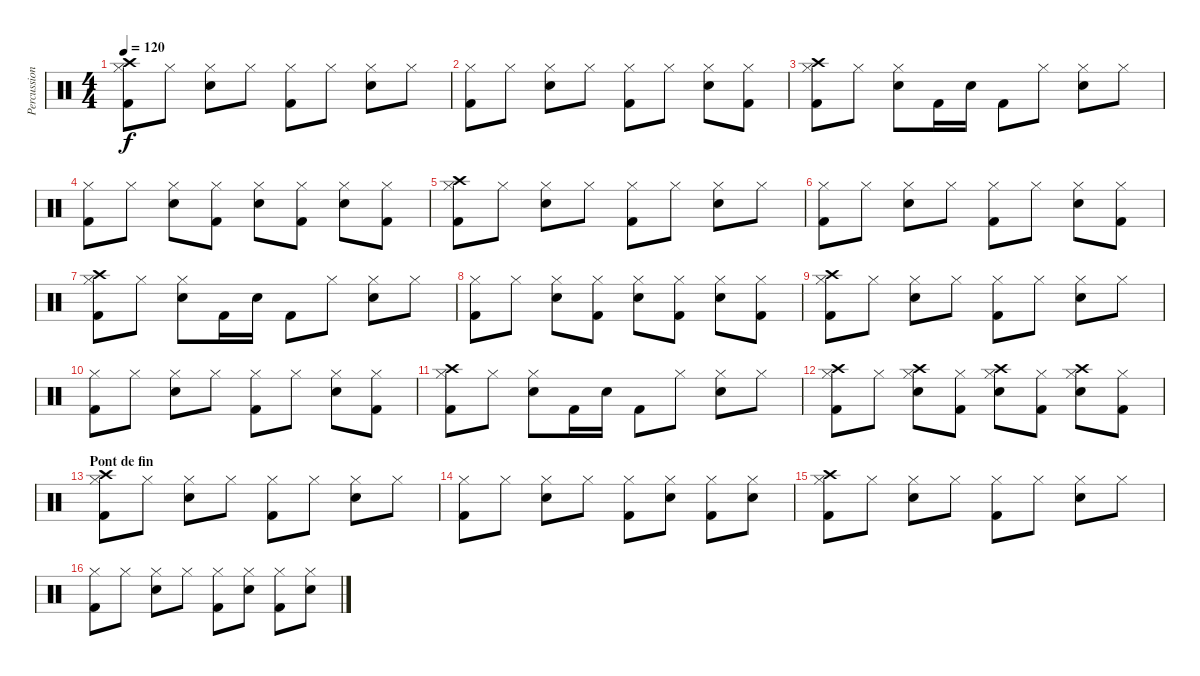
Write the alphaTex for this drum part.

\track ("Percussions" "Percussion") {instrument percussion}
\staff {score}
\articulation defaults
\ts (4 4)
\tempo 120
\clef neutral
\ks c
("Crash high (hit)" "Hi-Hat (closed)" "Kick (hit) 2").8{dy f} "Hi-Hat (closed)".8 ("Hi-Hat (closed)" "Electric Snare (hit)").8 "Hi-Hat (closed)".8 ("Hi-Hat (closed)" "Kick (hit) 2").8 "Hi-Hat (closed)".8 ("Hi-Hat (closed)" "Electric Snare (hit)").8 "Hi-Hat (closed)".8 |
("Hi-Hat (closed)" "Kick (hit) 2").8 "Hi-Hat (closed)".8 ("Hi-Hat (closed)" "Electric Snare (hit)").8 "Hi-Hat (closed)".8 ("Hi-Hat (closed)" "Kick (hit) 2").8 "Hi-Hat (closed)".8 ("Hi-Hat (closed)" "Electric Snare (hit)").8 ("Hi-Hat (closed)" "Kick (hit) 2").8 |
("Crash high (hit)" "Hi-Hat (closed)" "Kick (hit) 2").8 "Hi-Hat (closed)".8 ("Hi-Hat (closed)" "Electric Snare (hit)").8 "Kick (hit) 2".16 "Electric Snare (hit)".16 "Kick (hit) 2".8 "Hi-Hat (closed)".8 ("Hi-Hat (closed)" "Electric Snare (hit)").8 "Hi-Hat (closed)".8 |
("Hi-Hat (closed)" "Kick (hit) 2").8 "Hi-Hat (closed)".8 ("Hi-Hat (closed)" "Electric Snare (hit)").8 ("Hi-Hat (closed)" "Kick (hit) 2").8 ("Hi-Hat (closed)" "Electric Snare (hit)").8 ("Hi-Hat (closed)" "Kick (hit) 2").8 ("Hi-Hat (closed)" "Electric Snare (hit)").8 ("Hi-Hat (closed)" "Kick (hit) 2").8 |
("Crash high (hit)" "Hi-Hat (closed)" "Kick (hit) 2").8 "Hi-Hat (closed)".8 ("Hi-Hat (closed)" "Electric Snare (hit)").8 "Hi-Hat (closed)".8 ("Hi-Hat (closed)" "Kick (hit) 2").8 "Hi-Hat (closed)".8 ("Hi-Hat (closed)" "Electric Snare (hit)").8 "Hi-Hat (closed)".8 |
("Hi-Hat (closed)" "Kick (hit) 2").8 "Hi-Hat (closed)".8 ("Hi-Hat (closed)" "Electric Snare (hit)").8 "Hi-Hat (closed)".8 ("Hi-Hat (closed)" "Kick (hit) 2").8 "Hi-Hat (closed)".8 ("Hi-Hat (closed)" "Electric Snare (hit)").8 ("Hi-Hat (closed)" "Kick (hit) 2").8 |
("Crash high (hit)" "Hi-Hat (closed)" "Kick (hit) 2").8 "Hi-Hat (closed)".8 ("Hi-Hat (closed)" "Electric Snare (hit)").8 "Kick (hit) 2".16 "Electric Snare (hit)".16 "Kick (hit) 2".8 "Hi-Hat (closed)".8 ("Hi-Hat (closed)" "Electric Snare (hit)").8 "Hi-Hat (closed)".8 |
("Hi-Hat (closed)" "Kick (hit) 2").8 "Hi-Hat (closed)".8 ("Hi-Hat (closed)" "Electric Snare (hit)").8 ("Hi-Hat (closed)" "Kick (hit) 2").8 ("Hi-Hat (closed)" "Electric Snare (hit)").8 ("Hi-Hat (closed)" "Kick (hit) 2").8 ("Hi-Hat (closed)" "Electric Snare (hit)").8 ("Hi-Hat (closed)" "Kick (hit) 2").8 |
("Crash high (hit)" "Hi-Hat (closed)" "Kick (hit) 2").8 "Hi-Hat (closed)".8 ("Hi-Hat (closed)" "Electric Snare (hit)").8 "Hi-Hat (closed)".8 ("Hi-Hat (closed)" "Kick (hit) 2").8 "Hi-Hat (closed)".8 ("Hi-Hat (closed)" "Electric Snare (hit)").8 "Hi-Hat (closed)".8 |
("Hi-Hat (closed)" "Kick (hit) 2").8 "Hi-Hat (closed)".8 ("Hi-Hat (closed)" "Electric Snare (hit)").8 "Hi-Hat (closed)".8 ("Hi-Hat (closed)" "Kick (hit) 2").8 "Hi-Hat (closed)".8 ("Hi-Hat (closed)" "Electric Snare (hit)").8 ("Hi-Hat (closed)" "Kick (hit) 2").8 |
("Crash high (hit)" "Hi-Hat (closed)" "Kick (hit) 2").8 "Hi-Hat (closed)".8 ("Hi-Hat (closed)" "Electric Snare (hit)").8 "Kick (hit) 2".16 "Electric Snare (hit)".16 "Kick (hit) 2".8 "Hi-Hat (closed)".8 ("Hi-Hat (closed)" "Electric Snare (hit)").8 "Hi-Hat (closed)".8 |
("Crash high (hit)" "Hi-Hat (closed)" "Kick (hit) 2").8 "Hi-Hat (closed)".8 ("Crash high (hit)" "Hi-Hat (closed)" "Electric Snare (hit)").8 ("Hi-Hat (closed)" "Kick (hit) 2").8 ("Crash high (hit)" "Hi-Hat (closed)" "Electric Snare (hit)").8 ("Hi-Hat (closed)" "Kick (hit) 2").8 ("Crash high (hit)" "Hi-Hat (closed)" "Electric Snare (hit)").8 ("Hi-Hat (closed)" "Kick (hit) 2").8 |
\section ("" "Pont de fin")
("Crash high (hit)" "Hi-Hat (closed)" "Kick (hit) 2").8 "Hi-Hat (closed)".8 ("Hi-Hat (closed)" "Electric Snare (hit)").8 "Hi-Hat (closed)".8 ("Hi-Hat (closed)" "Kick (hit) 2").8 "Hi-Hat (closed)".8 ("Hi-Hat (closed)" "Electric Snare (hit)").8 "Hi-Hat (closed)".8 |
("Hi-Hat (closed)" "Kick (hit) 2").8 "Hi-Hat (closed)".8 ("Hi-Hat (closed)" "Electric Snare (hit)").8 "Hi-Hat (closed)".8 ("Hi-Hat (closed)" "Kick (hit) 2").8 ("Hi-Hat (closed)" "Electric Snare (hit)").8 ("Hi-Hat (closed)" "Kick (hit) 2").8 ("Hi-Hat (closed)" "Electric Snare (hit)").8 |
("Crash high (hit)" "Hi-Hat (closed)" "Kick (hit) 2").8 "Hi-Hat (closed)".8 ("Hi-Hat (closed)" "Electric Snare (hit)").8 "Hi-Hat (closed)".8 ("Hi-Hat (closed)" "Kick (hit) 2").8 "Hi-Hat (closed)".8 ("Hi-Hat (closed)" "Electric Snare (hit)").8 "Hi-Hat (closed)".8 |
("Hi-Hat (closed)" "Kick (hit) 2").8 "Hi-Hat (closed)".8 ("Hi-Hat (closed)" "Electric Snare (hit)").8 "Hi-Hat (closed)".8 ("Hi-Hat (closed)" "Kick (hit) 2").8 ("Hi-Hat (closed)" "Electric Snare (hit)").8 ("Hi-Hat (closed)" "Kick (hit) 2").8 ("Hi-Hat (closed)" "Electric Snare (hit)").8
